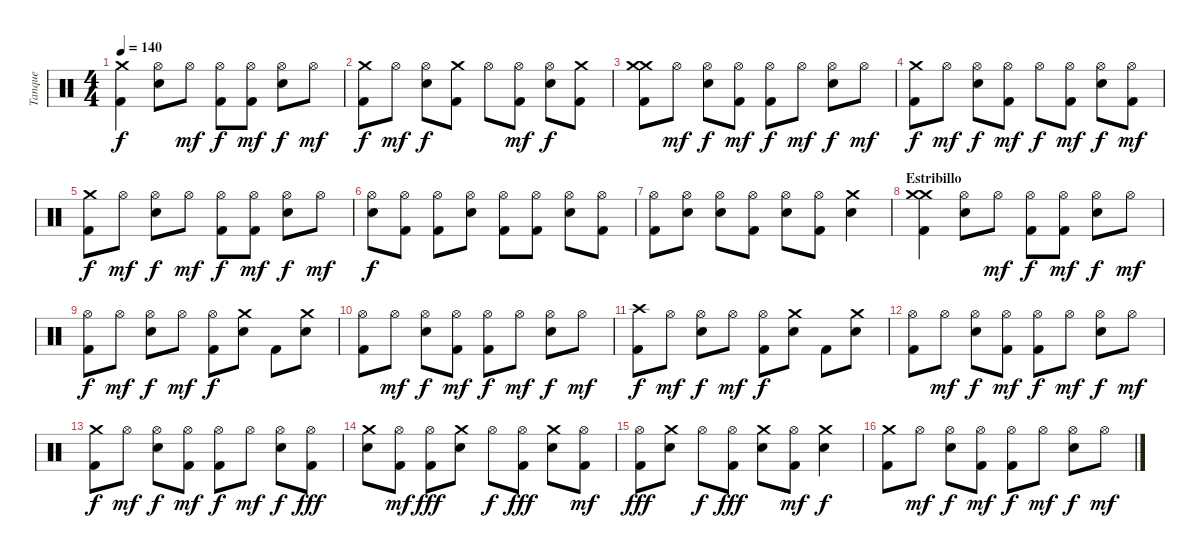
\track ("Tanque" "Tanque") {instrument percussion}
\staff {score}
\articulation defaults
\ts (4 4)
\tempo 140
\clef neutral
\ks c
("Crash medium (hit)" "Kick (hit) 2").4{dy f} ("Hi-Hat (open)" "Electric Snare (hit)").8 "Hi-Hat (open)".8{dy mf} ("Hi-Hat (open)" "Kick (hit) 2").8{dy f} ("Hi-Hat (open)" "Kick (hit) 2").8{dy mf} ("Hi-Hat (open)" "Electric Snare (hit)").8{dy f} "Hi-Hat (open)".8{dy mf} |
("Crash medium (hit)" "Kick (hit) 2").8{dy f} "Hi-Hat (open)".8{dy mf} ("Hi-Hat (open)" "Electric Snare (hit)").8{dy f} ("Crash medium (hit)" "Kick (hit) 2").8 "Hi-Hat (open)".8 ("Hi-Hat (open)" "Kick (hit) 2").8{dy mf} ("Hi-Hat (open)" "Electric Snare (hit)").8{dy f} ("Crash medium (hit)" "Kick (hit) 2").8 |
("Crash medium (hit)" "Crash medium (hit)" "Kick (hit) 2").8 "Hi-Hat (open)".8{dy mf} ("Hi-Hat (open)" "Electric Snare (hit)").8{dy f} ("Hi-Hat (open)" "Kick (hit) 2").8{dy mf} ("Hi-Hat (open)" "Kick (hit) 2").8{dy f} "Hi-Hat (open)".8{dy mf} ("Hi-Hat (open)" "Electric Snare (hit)").8{dy f} "Hi-Hat (open)".8{dy mf} |
("Crash medium (hit)" "Kick (hit) 2").8{dy f} "Hi-Hat (open)".8{dy mf} ("Hi-Hat (open)" "Electric Snare (hit)").8{dy f} ("Hi-Hat (open)" "Kick (hit) 2").8{dy mf} "Hi-Hat (open)".8{dy f} ("Hi-Hat (open)" "Kick (hit) 2").8{dy mf} ("Hi-Hat (open)" "Electric Snare (hit)").8{dy f} ("Hi-Hat (open)" "Kick (hit) 2").8{dy mf} |
("Crash medium (hit)" "Kick (hit) 2").8{dy f} "Hi-Hat (open)".8{dy mf} ("Hi-Hat (open)" "Electric Snare (hit)").8{dy f} "Hi-Hat (open)".8{dy mf} ("Hi-Hat (open)" "Kick (hit) 2").8{dy f} ("Hi-Hat (open)" "Kick (hit) 2").8{dy mf} ("Hi-Hat (open)" "Electric Snare (hit)").8{dy f} "Hi-Hat (open)".8{dy mf} |
("Hi-Hat (open)" "Electric Snare (hit)").8{dy f} ("Hi-Hat (open)" "Kick (hit) 2").8 ("Hi-Hat (open)" "Kick (hit) 2").8 ("Hi-Hat (open)" "Electric Snare (hit)").8 ("Hi-Hat (open)" "Kick (hit) 2").8 ("Hi-Hat (open)" "Kick (hit) 2").8 ("Hi-Hat (open)" "Electric Snare (hit)").8 ("Hi-Hat (open)" "Kick (hit) 2").8 |
("Hi-Hat (open)" "Kick (hit) 2").8 ("Hi-Hat (open)" "Electric Snare (hit)").8 ("Hi-Hat (open)" "Electric Snare (hit)").8 ("Hi-Hat (open)" "Kick (hit) 2").8 ("Hi-Hat (open)" "Electric Snare (hit)").8 ("Hi-Hat (open)" "Kick (hit) 2").8 ("Crash medium (hit)" "Electric Snare (hit)").4 |
\section ("" "Estribillo")
("Crash medium (hit)" "Crash medium (hit)" "Kick (hit) 2").4 ("Hi-Hat (open)" "Electric Snare (hit)").8 "Hi-Hat (open)".8{dy mf} ("Hi-Hat (open)" "Kick (hit) 2").8{dy f} ("Hi-Hat (open)" "Kick (hit) 2").8{dy mf} ("Hi-Hat (open)" "Electric Snare (hit)").8{dy f} "Hi-Hat (open)".8{dy mf} |
("Hi-Hat (open)" "Kick (hit) 2").8{dy f} "Hi-Hat (open)".8{dy mf} ("Hi-Hat (open)" "Electric Snare (hit)").8{dy f} "Hi-Hat (open)".8{dy mf} ("Hi-Hat (open)" "Kick (hit) 2").8{dy f} ("Crash medium (hit)" "Electric Snare (hit)").8 "Kick (hit) 2".8 ("Crash medium (hit)" "Electric Snare (hit)").8 |
("Hi-Hat (open)" "Kick (hit) 2").8 "Hi-Hat (open)".8{dy mf} ("Hi-Hat (open)" "Electric Snare (hit)").8{dy f} ("Hi-Hat (open)" "Kick (hit) 2").8{dy mf} ("Hi-Hat (open)" "Kick (hit) 2").8{dy f} "Hi-Hat (open)".8{dy mf} ("Hi-Hat (open)" "Electric Snare (hit)").8{dy f} "Hi-Hat (open)".8{dy mf} |
("Crash high (hit)" "Kick (hit) 2").8{dy f} "Hi-Hat (open)".8{dy mf} ("Hi-Hat (open)" "Electric Snare (hit)").8{dy f} "Hi-Hat (open)".8{dy mf} ("Hi-Hat (open)" "Kick (hit) 2").8{dy f} ("Crash medium (hit)" "Electric Snare (hit)").8 "Kick (hit) 2".8 ("Crash medium (hit)" "Electric Snare (hit)").8 |
("Hi-Hat (open)" "Kick (hit) 2").8 "Hi-Hat (open)".8{dy mf} ("Hi-Hat (open)" "Electric Snare (hit)").8{dy f} ("Hi-Hat (open)" "Kick (hit) 2").8{dy mf} ("Hi-Hat (open)" "Kick (hit) 2").8{dy f} "Hi-Hat (open)".8{dy mf} ("Hi-Hat (open)" "Electric Snare (hit)").8{dy f} "Hi-Hat (open)".8{dy mf} |
("Crash medium (hit)" "Kick (hit) 2").8{dy f} "Hi-Hat (open)".8{dy mf} ("Hi-Hat (open)" "Electric Snare (hit)").8{dy f} ("Hi-Hat (open)" "Kick (hit) 2").8{dy mf} ("Hi-Hat (open)" "Kick (hit) 2").8{dy f} "Hi-Hat (open)".8{dy mf} ("Hi-Hat (open)" "Electric Snare (hit)").8{dy f} ("Hi-Hat (open)" "Kick (hit) 2").8{dy fff} |
("Crash medium (hit)" "Electric Snare (hit)").8 ("Hi-Hat (open)" "Kick (hit) 2").8{dy mf} ("Hi-Hat (open)" "Kick (hit) 2").8{dy fff} ("Crash medium (hit)" "Electric Snare (hit)").8 "Hi-Hat (open)".8{dy f} ("Hi-Hat (open)" "Kick (hit) 2").8{dy fff} ("Crash medium (hit)" "Electric Snare (hit)").8 ("Hi-Hat (open)" "Kick (hit) 2").8{dy mf} |
("Hi-Hat (open)" "Kick (hit) 2").8{dy fff} ("Crash medium (hit)" "Electric Snare (hit)").8 "Hi-Hat (open)".8{dy f} ("Hi-Hat (open)" "Kick (hit) 2").8{dy fff} ("Crash medium (hit)" "Electric Snare (hit)").8 ("Hi-Hat (open)" "Kick (hit) 2").8{dy mf} ("Crash medium (hit)" "Electric Snare (hit)").4{dy f} |
("Crash medium (hit)" "Kick (hit) 2").8 "Hi-Hat (open)".8{dy mf} ("Hi-Hat (open)" "Electric Snare (hit)").8{dy f} ("Hi-Hat (open)" "Kick (hit) 2").8{dy mf} ("Hi-Hat (open)" "Kick (hit) 2").8{dy f} "Hi-Hat (open)".8{dy mf} ("Hi-Hat (open)" "Electric Snare (hit)").8{dy f} "Hi-Hat (open)".8{dy mf}
